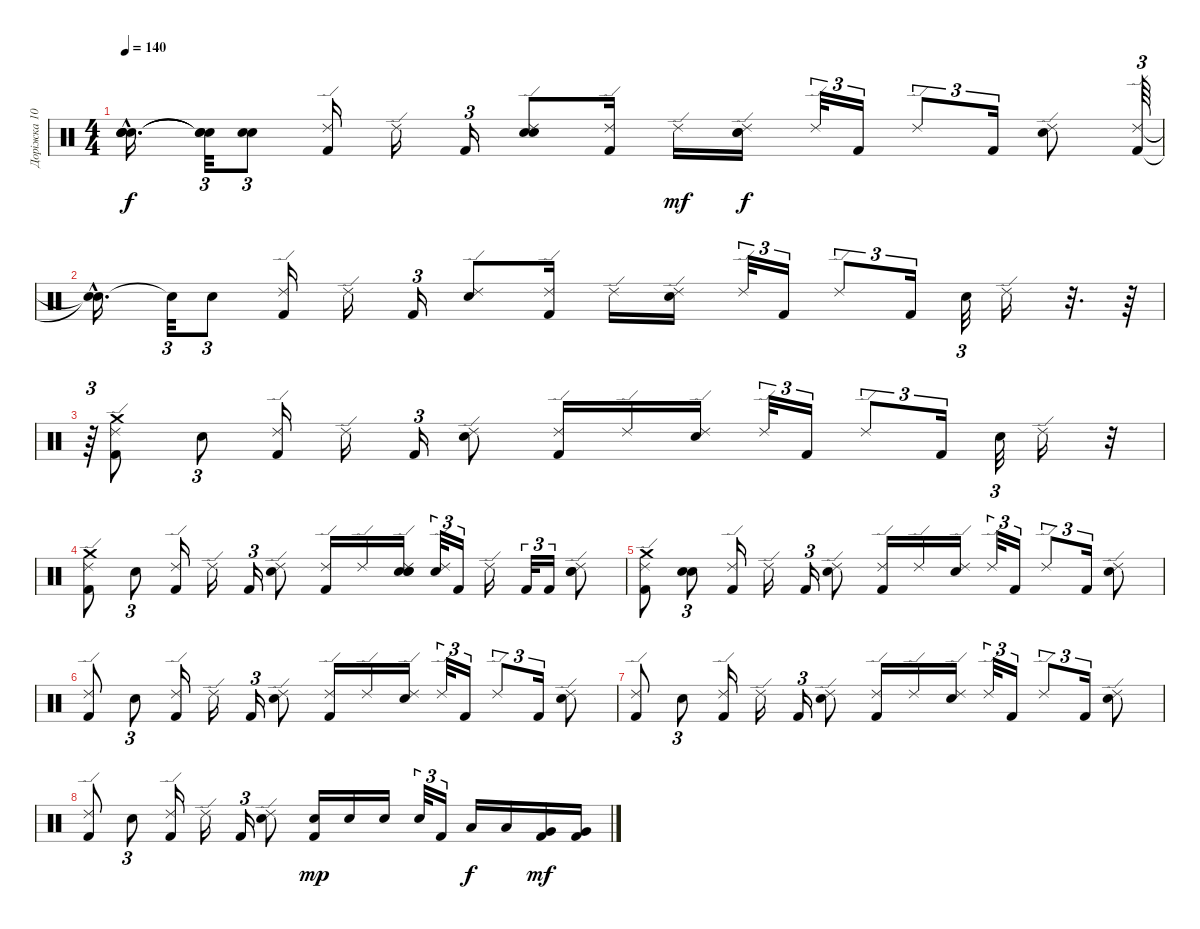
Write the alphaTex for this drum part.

\track ("Доріжка 10" "Доріжка 10") {instrument percussion}
\staff {score}
\articulation defaults
\ts (4 4)
\tempo 140
\clef neutral
\ks c
("Snare (hit)"{hac t} "Snare (hit)"{hac t} "Snare (hit)"{t} "Snare (hit)"{hac t}).16{d dy f} ("Snare (hit)"{t} "Snare (hit)"{t} "Snare (hit)"{t}).32{tu (3 2)} ("Electric Snare (hit)" "Electric Snare (hit)").8{tu (3 2)} ("Kick (hit) 2" "Ride (edge) 2").16 "Ride (edge) 2".16 "Kick (hit) 2".16{tu (3 2)} ("Electric Snare (hit)" "Electric Snare (hit)" "Ride (edge) 2").8 ("Kick (hit) 2" "Ride (edge) 2").16 "Ride (edge) 2".16{dy mf} ("Electric Snare (hit)" "Electric Snare (hit)" "Ride (edge) 2").16{dy f} "Ride (edge) 2".32{tu (3 2)} "Kick (hit) 2".16{tu (3 2)} "Ride (edge) 2".8{tu (3 2)} "Kick (hit) 2".16{tu (3 2)} ("Electric Snare (hit)" "Ride (edge) 2").8 ("Ride (edge) 2" "Kick (hit) 2").64{tu (3 2)} |
("Snare (hit)"{hac t} "Snare (hit)"{hac t}).16{d} "Snare (hit)"{t}.32{tu (3 2)} "Electric Snare (hit)".8{tu (3 2)} ("Ride (edge) 2" "Kick (hit) 2").16 "Ride (edge) 2".16 "Kick (hit) 2".16{tu (3 2)} ("Ride (edge) 2" "Electric Snare (hit)").8 ("Ride (edge) 2" "Kick (hit) 2").16 "Ride (edge) 2".16 ("Ride (edge) 2" "Electric Snare (hit)").16 "Ride (edge) 2".32{tu (3 2)} "Kick (hit) 2".16{tu (3 2)} "Ride (edge) 2".8{tu (3 2)} "Kick (hit) 2".16{tu (3 2)} "Electric Snare (hit)".32{tu (3 2)} "Ride (edge) 2".16 r.32{d} r.64 |
r.64{tu (3 2)} ("Ride (edge) 2" "Crash medium (hit)" "Kick (hit) 2").8 "Electric Snare (hit)".8{tu (3 2)} ("Kick (hit) 2" "Ride (edge) 2").16 "Ride (edge) 2".16 "Kick (hit) 2".16{tu (3 2)} ("Ride (edge) 2" "Electric Snare (hit)").8 ("Ride (edge) 2" "Kick (hit) 2").16 "Ride (edge) 2".16 ("Ride (edge) 2" "Electric Snare (hit)").16 "Ride (edge) 2".32{tu (3 2)} "Kick (hit) 2".16{tu (3 2)} "Ride (edge) 2".8{tu (3 2)} "Kick (hit) 2".16{tu (3 2)} "Electric Snare (hit)".32{tu (3 2)} "Ride (edge) 2".16 r.32 |
("Ride (edge) 2" "Crash medium (hit)" "Kick (hit) 2").8 "Electric Snare (hit)".8{tu (3 2)} ("Kick (hit) 2" "Ride (edge) 2").16 "Ride (edge) 2".16 "Kick (hit) 2".16{tu (3 2)} ("Ride (edge) 2" "Electric Snare (hit)").8 ("Ride (edge) 2" "Kick (hit) 2").16 "Ride (edge) 2".16 ("Ride (edge) 2" "Electric Snare (hit)" "Electric Snare (hit)" "Electric Snare (hit)").16 ("Ride (edge) 2" "Electric Snare (hit)").32{tu (3 2)} "Kick (hit) 2".16{tu (3 2)} "Ride (edge) 2".16 "Kick (hit) 2".32{tu (3 2)} "Kick (hit) 2".16{tu (3 2)} ("Electric Snare (hit)" "Electric Snare (hit)" "Ride (edge) 2").8 |
("Ride (edge) 2" "Kick (hit) 2" "Crash medium (hit)").8 ("Electric Snare (hit)" "Electric Snare (hit)").8{tu (3 2)} ("Ride (edge) 2" "Kick (hit) 2").16 "Ride (edge) 2".16 "Kick (hit) 2".16{tu (3 2)} ("Ride (edge) 2" "Electric Snare (hit)").8 ("Ride (edge) 2" "Kick (hit) 2").16 "Ride (edge) 2".16 ("Ride (edge) 2" "Electric Snare (hit)").16 "Ride (edge) 2".32{tu (3 2)} "Kick (hit) 2".16{tu (3 2)} "Ride (edge) 2".8{tu (3 2)} "Kick (hit) 2".16{tu (3 2)} ("Ride (edge) 2" "Electric Snare (hit)").8 |
("Ride (edge) 2" "Kick (hit) 2").8 "Electric Snare (hit)".8{tu (3 2)} ("Ride (edge) 2" "Kick (hit) 2").16 "Ride (edge) 2".16 "Kick (hit) 2".16{tu (3 2)} ("Electric Snare (hit)" "Ride (edge) 2").8 ("Ride (edge) 2" "Kick (hit) 2").16 "Ride (edge) 2".16 ("Ride (edge) 2" "Electric Snare (hit)").16 "Ride (edge) 2".32{tu (3 2)} "Kick (hit) 2".16{tu (3 2)} "Ride (edge) 2".8{tu (3 2)} "Kick (hit) 2".16{tu (3 2)} ("Ride (edge) 2" "Electric Snare (hit)").8 |
("Kick (hit) 2" "Ride (edge) 2").8 "Electric Snare (hit)".8{tu (3 2)} ("Kick (hit) 2" "Ride (edge) 2").16 "Ride (edge) 2".16 "Kick (hit) 2".16{tu (3 2)} ("Electric Snare (hit)" "Ride (edge) 2").8 ("Kick (hit) 2" "Ride (edge) 2").16 "Ride (edge) 2".16 ("Electric Snare (hit)" "Ride (edge) 2").16 "Ride (edge) 2".32{tu (3 2)} "Kick (hit) 2".16{tu (3 2)} "Ride (edge) 2".8{tu (3 2)} "Kick (hit) 2".16{tu (3 2)} ("Electric Snare (hit)" "Ride (edge) 2").8 |
("Kick (hit) 2" "Ride (edge) 2").8 "Electric Snare (hit)".8{tu (3 2)} ("Kick (hit) 2" "Ride (edge) 2").16 "Ride (edge) 2".16 "Kick (hit) 2".16{tu (3 2)} ("Electric Snare (hit)" "Ride (edge) 2").8 ("Electric Snare (hit)" "Kick (hit) 2").16{dy mp} "Electric Snare (hit)".16 "Electric Snare (hit)".16 "Electric Snare (hit)".32{tu (3 2)} "Kick (hit) 2".16{tu (3 2)} "Low Tom (hit)".16{dy f} "Low Tom (hit)".16 ("Kick (hit) 2" "Very Low Tom (hit)").16{dy mf} ("Very Low Tom (hit)" "Kick (hit) 2").16
